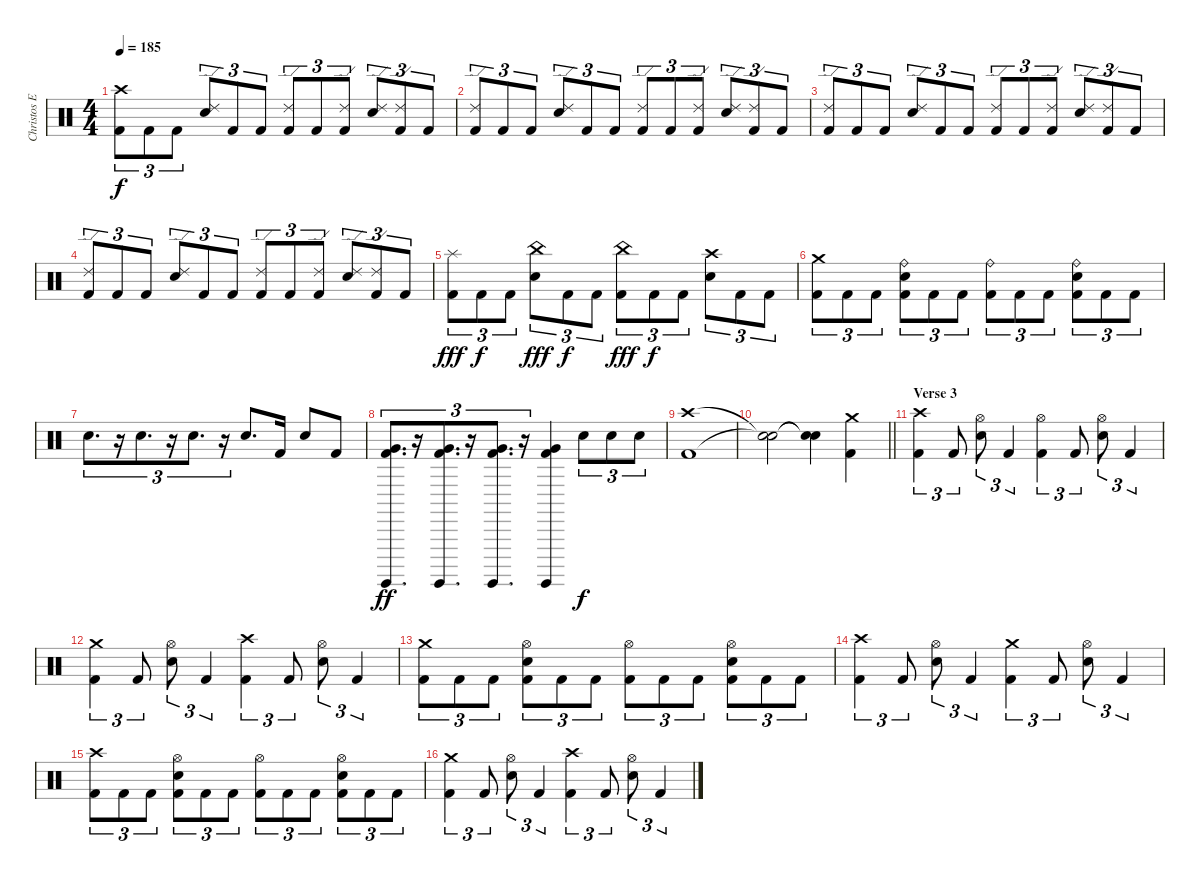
\track ("Christos Ephitimiadis (drums)" "Christos E") {instrument percussion}
\staff {score}
\articulation defaults
\ts (4 4)
\tempo 185
\clef neutral
\ks c
("Crash high (hit)" "Kick (hit) 2").8{tu (3 2) dy f} "Kick (hit) 2".8{tu (3 2)} "Kick (hit) 2".8{tu (3 2)} ("Ride (edge) 2" "Snare (hit) 2").8{tu (3 2)} "Kick (hit) 2".8{tu (3 2)} "Kick (hit) 2".8{tu (3 2)} ("Ride (edge) 2" "Kick (hit) 2").8{tu (3 2)} "Kick (hit) 2".8{tu (3 2)} ("Ride (edge) 2" "Kick (hit) 2").8{tu (3 2)} ("Ride (edge) 2" "Snare (hit) 2").8{tu (3 2)} ("Ride (edge) 2" "Kick (hit) 2").8{tu (3 2)} "Kick (hit) 2".8{tu (3 2)} |
("Ride (edge) 2" "Kick (hit) 2").8{tu (3 2)} "Kick (hit) 2".8{tu (3 2)} "Kick (hit) 2".8{tu (3 2)} ("Ride (edge) 2" "Snare (hit) 2").8{tu (3 2)} "Kick (hit) 2".8{tu (3 2)} "Kick (hit) 2".8{tu (3 2)} ("Ride (edge) 2" "Kick (hit) 2").8{tu (3 2)} "Kick (hit) 2".8{tu (3 2)} ("Ride (edge) 2" "Kick (hit) 2").8{tu (3 2)} ("Ride (edge) 2" "Snare (hit) 2").8{tu (3 2)} ("Ride (edge) 2" "Kick (hit) 2").8{tu (3 2)} "Kick (hit) 2".8{tu (3 2)} |
("Ride (edge) 2" "Kick (hit) 2").8{tu (3 2)} "Kick (hit) 2".8{tu (3 2)} "Kick (hit) 2".8{tu (3 2)} ("Ride (edge) 2" "Snare (hit) 2").8{tu (3 2)} "Kick (hit) 2".8{tu (3 2)} "Kick (hit) 2".8{tu (3 2)} ("Ride (edge) 2" "Kick (hit) 2").8{tu (3 2)} "Kick (hit) 2".8{tu (3 2)} ("Ride (edge) 2" "Kick (hit) 2").8{tu (3 2)} ("Ride (edge) 2" "Snare (hit) 2").8{tu (3 2)} ("Ride (edge) 2" "Kick (hit) 2").8{tu (3 2)} "Kick (hit) 2".8{tu (3 2)} |
("Ride (edge) 2" "Kick (hit) 2").8{tu (3 2)} "Kick (hit) 2".8{tu (3 2)} "Kick (hit) 2".8{tu (3 2)} ("Ride (edge) 2" "Snare (hit) 2").8{tu (3 2)} "Kick (hit) 2".8{tu (3 2)} "Kick (hit) 2".8{tu (3 2)} ("Ride (edge) 2" "Kick (hit) 2").8{tu (3 2)} "Kick (hit) 2".8{tu (3 2)} ("Ride (edge) 2" "Kick (hit) 2").8{tu (3 2)} ("Ride (edge) 2" "Snare (hit) 2").8{tu (3 2)} ("Ride (edge) 2" "Kick (hit) 2").8{tu (3 2)} "Kick (hit) 2".8{tu (3 2)} |
("Splash (hit)" "Kick (hit) 2").8{tu (3 2) dy fff} "Kick (hit) 2".8{tu (3 2) dy f} "Kick (hit) 2".8{tu (3 2)} ("China (hit)" "Snare (hit) 2").8{tu (3 2) dy fff} "Kick (hit) 2".8{tu (3 2) dy f} "Kick (hit) 2".8{tu (3 2)} ("China (hit)" "Kick (hit) 2").8{tu (3 2) dy fff} "Kick (hit) 2".8{tu (3 2) dy f} "Kick (hit) 2".8{tu (3 2)} ("Crash high (hit)" "Snare (hit) 2").8{tu (3 2)} "Kick (hit) 2".8{tu (3 2)} "Kick (hit) 2".8{tu (3 2)} |
("Crash medium (hit)" "Kick (hit) 2").8{tu (3 2)} "Kick (hit) 2".8{tu (3 2)} "Kick (hit) 2".8{tu (3 2)} ("Ride (bell)" "Snare (hit) 2" "Kick (hit) 2").8{tu (3 2)} "Kick (hit) 2".8{tu (3 2)} "Kick (hit) 2".8{tu (3 2)} ("Ride (bell)" "Kick (hit) 2").8{tu (3 2)} "Kick (hit) 2".8{tu (3 2)} "Kick (hit) 2".8{tu (3 2)} ("Ride (bell)" "Snare (hit) 2" "Kick (hit) 2").8{tu (3 2)} "Kick (hit) 2".8{tu (3 2)} "Kick (hit) 2".8{tu (3 2)} |
"Snare (hit) 2".8{d tu (3 2)} r.16{tu (3 2)} "Snare (hit) 2".8{d tu (3 2)} r.16{tu (3 2)} "Snare (hit) 2".8{d tu (3 2)} r.16{tu (3 2)} "Snare (hit) 2".8{d} "Kick (hit) 2".16 "Snare (hit) 2".8 "Kick (hit) 2".8 |
("Surdo (hit)" "Very Low Tom (hit)" "Kick (hit) 2").8{d tu (3 2) dy ff} r.16{tu (3 2)} ("Surdo (hit)" "Very Low Tom (hit)" "Kick (hit) 2").8{d tu (3 2)} r.16{tu (3 2)} ("Surdo (hit)" "Very Low Tom (hit)" "Kick (hit) 2").8{d tu (3 2)} r.16{tu (3 2)} ("Surdo (hit)" "Very Low Tom (hit)" "Kick (hit) 2").4 "Snare (hit) 2".8{tu (3 2) dy f} "Snare (hit) 2".8{tu (3 2)} "Snare (hit) 2".8{tu (3 2)} |
("Crash high (hit)" "Kick (hit) 2").1 |
\barLineRight lightlight
("Snare (hit)"{t} "Snare (hit)"{t}).2 ("Snare (hit)"{t} "Snare (hit)"{t}).4 ("Crash medium (hit)" "Kick (hit) 2").4 |
\section ("" "Verse 3")
("Crash high (hit)" "Kick (hit) 2").4{tu (3 2)} "Kick (hit) 2".8{tu (3 2)} ("Hi-Hat (open)" "Snare (hit) 2").8{tu (3 2)} "Kick (hit) 2".4{tu (3 2)} ("Hi-Hat (open)" "Kick (hit) 2").4{tu (3 2)} "Kick (hit) 2".8{tu (3 2)} ("Hi-Hat (open)" "Snare (hit) 2").8{tu (3 2)} "Kick (hit) 2".4{tu (3 2)} |
("Crash medium (hit)" "Kick (hit) 2").4{tu (3 2)} "Kick (hit) 2".8{tu (3 2)} ("Hi-Hat (open)" "Snare (hit) 2").8{tu (3 2)} "Kick (hit) 2".4{tu (3 2)} ("Crash high (hit)" "Kick (hit) 2").4{tu (3 2)} "Kick (hit) 2".8{tu (3 2)} ("Hi-Hat (open)" "Snare (hit) 2").8{tu (3 2)} "Kick (hit) 2".4{tu (3 2)} |
("Crash medium (hit)" "Kick (hit) 2").8{tu (3 2)} "Kick (hit) 2".8{tu (3 2)} "Kick (hit) 2".8{tu (3 2)} ("Hi-Hat (open)" "Snare (hit) 2" "Kick (hit) 2").8{tu (3 2)} "Kick (hit) 2".8{tu (3 2)} "Kick (hit) 2".8{tu (3 2)} ("Hi-Hat (open)" "Kick (hit) 2").8{tu (3 2)} "Kick (hit) 2".8{tu (3 2)} "Kick (hit) 2".8{tu (3 2)} ("Hi-Hat (open)" "Snare (hit) 2" "Kick (hit) 2").8{tu (3 2)} "Kick (hit) 2".8{tu (3 2)} "Kick (hit) 2".8{tu (3 2)} |
("Crash high (hit)" "Kick (hit) 2").4{tu (3 2)} "Kick (hit) 2".8{tu (3 2)} ("Hi-Hat (open)" "Snare (hit) 2").8{tu (3 2)} "Kick (hit) 2".4{tu (3 2)} ("Crash medium (hit)" "Kick (hit) 2").4{tu (3 2)} "Kick (hit) 2".8{tu (3 2)} ("Hi-Hat (open)" "Snare (hit) 2").8{tu (3 2)} "Kick (hit) 2".4{tu (3 2)} |
("Crash high (hit)" "Kick (hit) 2").8{tu (3 2)} "Kick (hit) 2".8{tu (3 2)} "Kick (hit) 2".8{tu (3 2)} ("Hi-Hat (open)" "Snare (hit) 2" "Kick (hit) 2").8{tu (3 2)} "Kick (hit) 2".8{tu (3 2)} "Kick (hit) 2".8{tu (3 2)} ("Hi-Hat (open)" "Kick (hit) 2").8{tu (3 2)} "Kick (hit) 2".8{tu (3 2)} "Kick (hit) 2".8{tu (3 2)} ("Hi-Hat (open)" "Snare (hit) 2" "Kick (hit) 2").8{tu (3 2)} "Kick (hit) 2".8{tu (3 2)} "Kick (hit) 2".8{tu (3 2)} |
("Crash medium (hit)" "Kick (hit) 2").4{tu (3 2)} "Kick (hit) 2".8{tu (3 2)} ("Hi-Hat (open)" "Snare (hit) 2").8{tu (3 2)} "Kick (hit) 2".4{tu (3 2)} ("Crash high (hit)" "Kick (hit) 2").4{tu (3 2)} "Kick (hit) 2".8{tu (3 2)} ("Hi-Hat (open)" "Snare (hit) 2").8{tu (3 2)} "Kick (hit) 2".4{tu (3 2)}
